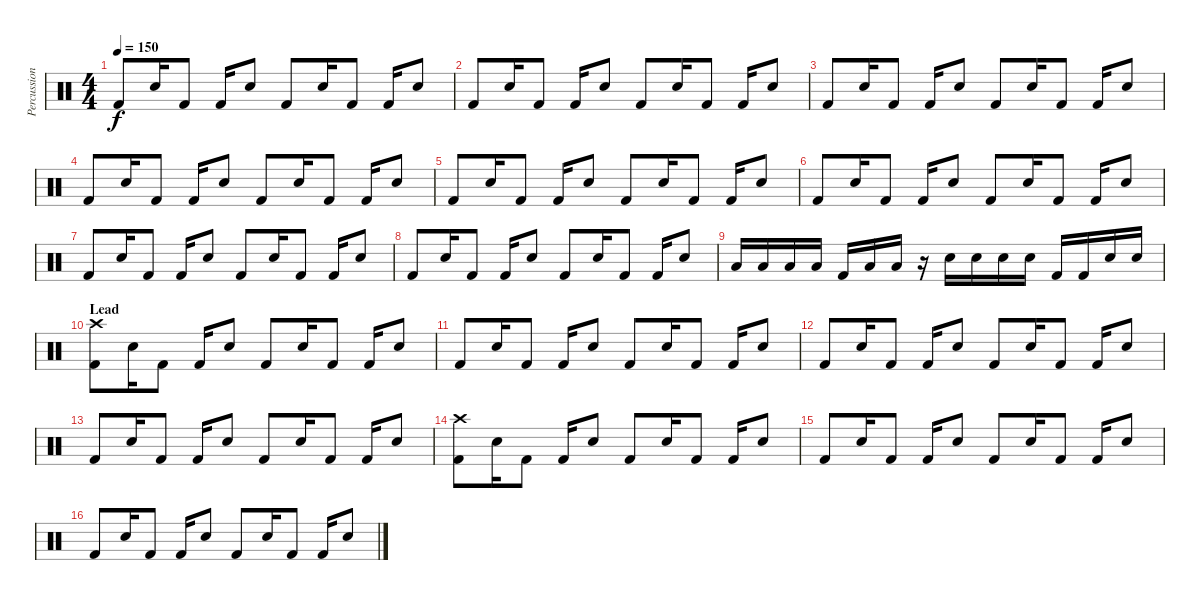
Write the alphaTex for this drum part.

\track ("Percussion" "Percussion") {instrument percussion}
\staff {score}
\articulation defaults
\ts (4 4)
\tempo 150
\clef neutral
\ks c "Kick (hit) 2".8{dy f} "Snare (hit) 2".16 "Kick (hit) 2".8 "Kick (hit) 2".16 "Snare (hit) 2".8 "Kick (hit) 2".8 "Snare (hit) 2".16 "Kick (hit) 2".8 "Kick (hit) 2".16 "Snare (hit) 2".8
|
"Kick (hit) 2".8 "Snare (hit) 2".16 "Kick (hit) 2".8 "Kick (hit) 2".16 "Snare (hit) 2".8 "Kick (hit) 2".8 "Snare (hit) 2".16 "Kick (hit) 2".8 "Kick (hit) 2".16 "Snare (hit) 2".8 |
"Kick (hit) 2".8 "Snare (hit) 2".16 "Kick (hit) 2".8 "Kick (hit) 2".16 "Snare (hit) 2".8 "Kick (hit) 2".8 "Snare (hit) 2".16 "Kick (hit) 2".8 "Kick (hit) 2".16 "Snare (hit) 2".8 |
"Kick (hit) 2".8 "Snare (hit) 2".16 "Kick (hit) 2".8 "Kick (hit) 2".16 "Snare (hit) 2".8 "Kick (hit) 2".8 "Snare (hit) 2".16 "Kick (hit) 2".8 "Kick (hit) 2".16 "Snare (hit) 2".8 |
"Kick (hit) 2".8 "Snare (hit) 2".16 "Kick (hit) 2".8 "Kick (hit) 2".16 "Snare (hit) 2".8 "Kick (hit) 2".8 "Snare (hit) 2".16 "Kick (hit) 2".8 "Kick (hit) 2".16 "Snare (hit) 2".8 |
"Kick (hit) 2".8 "Snare (hit) 2".16 "Kick (hit) 2".8 "Kick (hit) 2".16 "Snare (hit) 2".8 "Kick (hit) 2".8 "Snare (hit) 2".16 "Kick (hit) 2".8 "Kick (hit) 2".16 "Snare (hit) 2".8 |
"Kick (hit) 2".8 "Snare (hit) 2".16 "Kick (hit) 2".8 "Kick (hit) 2".16 "Snare (hit) 2".8 "Kick (hit) 2".8 "Snare (hit) 2".16 "Kick (hit) 2".8 "Kick (hit) 2".16 "Snare (hit) 2".8 |
"Kick (hit) 2".8 "Snare (hit) 2".16 "Kick (hit) 2".8 "Kick (hit) 2".16 "Snare (hit) 2".8 "Kick (hit) 2".8 "Snare (hit) 2".16 "Kick (hit) 2".8 "Kick (hit) 2".16 "Snare (hit) 2".8 |
"Low Tom (hit)".16 "Low Tom (hit)".16 "Low Tom (hit)".16 "Low Tom (hit)".16 "Kick (hit) 2".16 "Low Tom (hit)".16 "Low Tom (hit)".16 r.16 "Snare (hit) 2".16 "Snare (hit) 2".16 "Snare (hit) 2".16 "Snare (hit) 2".16 "Kick (hit) 2".16 "Kick (hit) 2".16 "Snare (hit) 2".16 "Snare (hit) 2".16 |
\section ("" "Lead")
("Crash high (hit)" "Kick (hit) 2").8 "Snare (hit) 2".16 "Kick (hit) 2".8 "Kick (hit) 2".16 "Snare (hit) 2".8 "Kick (hit) 2".8 "Snare (hit) 2".16 "Kick (hit) 2".8 "Kick (hit) 2".16 "Snare (hit) 2".8 |
"Kick (hit) 2".8 "Snare (hit) 2".16 "Kick (hit) 2".8 "Kick (hit) 2".16 "Snare (hit) 2".8 "Kick (hit) 2".8 "Snare (hit) 2".16 "Kick (hit) 2".8 "Kick (hit) 2".16 "Snare (hit) 2".8 |
"Kick (hit) 2".8 "Snare (hit) 2".16 "Kick (hit) 2".8 "Kick (hit) 2".16 "Snare (hit) 2".8 "Kick (hit) 2".8 "Snare (hit) 2".16 "Kick (hit) 2".8 "Kick (hit) 2".16 "Snare (hit) 2".8 |
"Kick (hit) 2".8 "Snare (hit) 2".16 "Kick (hit) 2".8 "Kick (hit) 2".16 "Snare (hit) 2".8 "Kick (hit) 2".8 "Snare (hit) 2".16 "Kick (hit) 2".8 "Kick (hit) 2".16 "Snare (hit) 2".8 |
("Crash high (hit)" "Kick (hit) 2").8 "Snare (hit) 2".16 "Kick (hit) 2".8 "Kick (hit) 2".16 "Snare (hit) 2".8 "Kick (hit) 2".8 "Snare (hit) 2".16 "Kick (hit) 2".8 "Kick (hit) 2".16 "Snare (hit) 2".8 |
"Kick (hit) 2".8 "Snare (hit) 2".16 "Kick (hit) 2".8 "Kick (hit) 2".16 "Snare (hit) 2".8 "Kick (hit) 2".8 "Snare (hit) 2".16 "Kick (hit) 2".8 "Kick (hit) 2".16 "Snare (hit) 2".8 |
"Kick (hit) 2".8 "Snare (hit) 2".16 "Kick (hit) 2".8 "Kick (hit) 2".16 "Snare (hit) 2".8 "Kick (hit) 2".8 "Snare (hit) 2".16 "Kick (hit) 2".8 "Kick (hit) 2".16 "Snare (hit) 2".8
